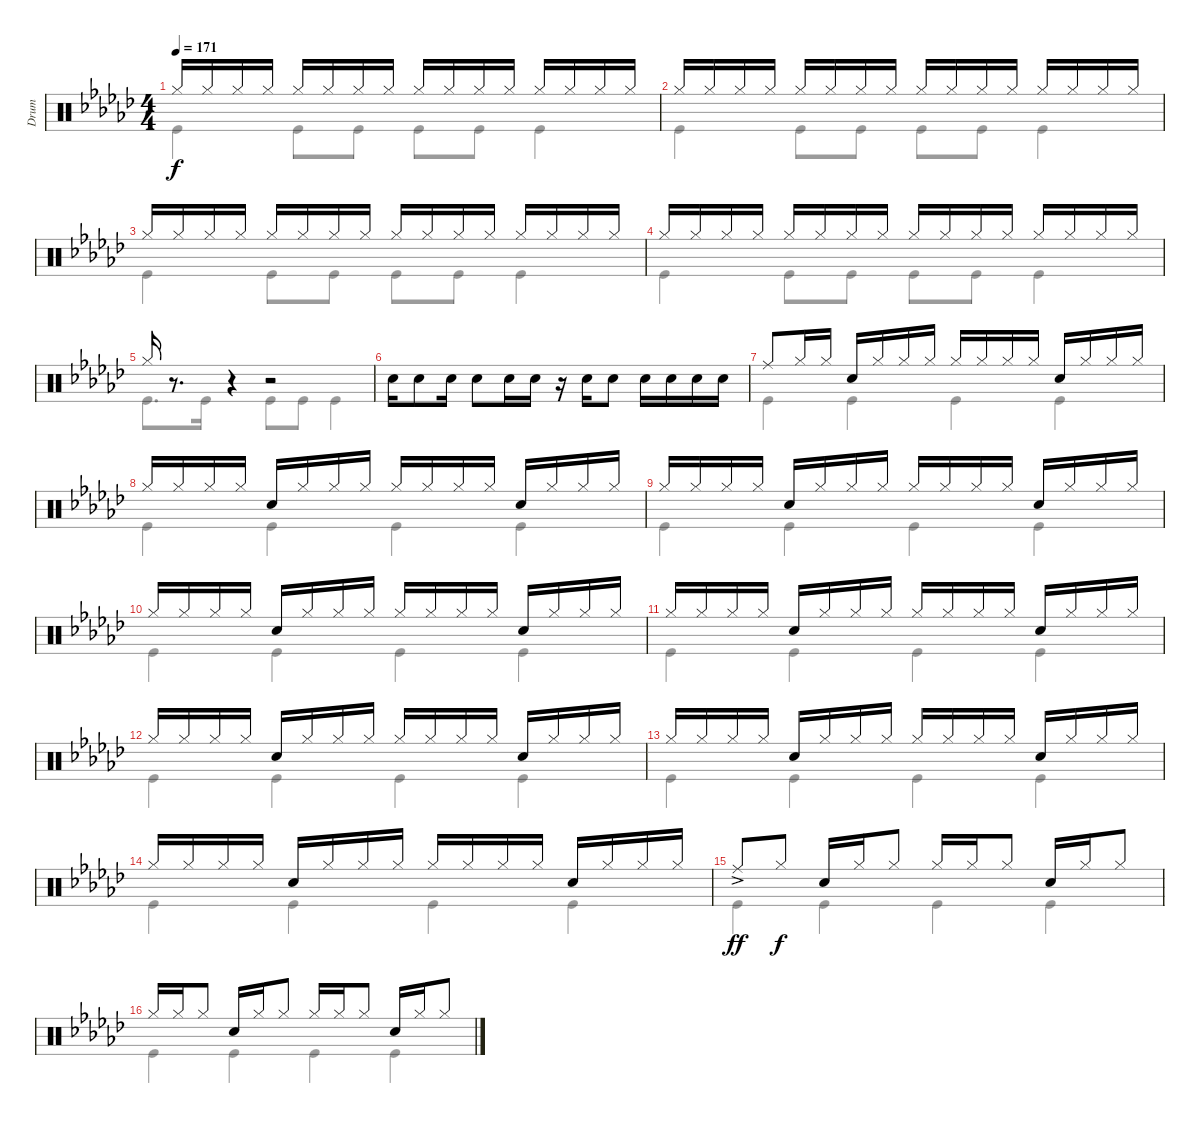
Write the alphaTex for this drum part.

\track ("Drum" "Drum") {instrument percussion}
\staff {score}
\articulation defaults
\voice
\ts (4 4)
\tempo 171
\clef neutral
\ks gb "Hi-Hat (closed)".16{dy f} "Hi-Hat (closed)".16 "Hi-Hat (closed)".16 "Hi-Hat (closed)".16 "Hi-Hat (closed)".16 "Hi-Hat (closed)".16 "Hi-Hat (closed)".16 "Hi-Hat (closed)".16 "Hi-Hat (closed)".16 "Hi-Hat (closed)".16 "Hi-Hat (closed)".16 "Hi-Hat (closed)".16 "Hi-Hat (closed)".16 "Hi-Hat (closed)".16 "Hi-Hat (closed)".16 "Hi-Hat (closed)".16
|
"Hi-Hat (closed)".16 "Hi-Hat (closed)".16 "Hi-Hat (closed)".16 "Hi-Hat (closed)".16 "Hi-Hat (closed)".16 "Hi-Hat (closed)".16 "Hi-Hat (closed)".16 "Hi-Hat (closed)".16 "Hi-Hat (closed)".16 "Hi-Hat (closed)".16 "Hi-Hat (closed)".16 "Hi-Hat (closed)".16 "Hi-Hat (closed)".16 "Hi-Hat (closed)".16 "Hi-Hat (closed)".16 "Hi-Hat (closed)".16 |
"Hi-Hat (closed)".16 "Hi-Hat (closed)".16 "Hi-Hat (closed)".16 "Hi-Hat (closed)".16 "Hi-Hat (closed)".16 "Hi-Hat (closed)".16 "Hi-Hat (closed)".16 "Hi-Hat (closed)".16 "Hi-Hat (closed)".16 "Hi-Hat (closed)".16 "Hi-Hat (closed)".16 "Hi-Hat (closed)".16 "Hi-Hat (closed)".16 "Hi-Hat (closed)".16 "Hi-Hat (closed)".16 "Hi-Hat (closed)".16 |
"Hi-Hat (closed)".16 "Hi-Hat (closed)".16 "Hi-Hat (closed)".16 "Hi-Hat (closed)".16 "Hi-Hat (closed)".16 "Hi-Hat (closed)".16 "Hi-Hat (closed)".16 "Hi-Hat (closed)".16 "Hi-Hat (closed)".16 "Hi-Hat (closed)".16 "Hi-Hat (closed)".16 "Hi-Hat (closed)".16 "Hi-Hat (closed)".16 "Hi-Hat (closed)".16 "Hi-Hat (closed)".16 "Hi-Hat (closed)".16 |
"Hi-Hat (closed)".16 r.8{d} r.4 r.2 |
"Snare (hit) 2".16 "Snare (hit) 2".8 "Snare (hit) 2".16 "Snare (hit) 2".8 "Snare (hit) 2".16 "Snare (hit) 2".16 r.16 "Snare (hit) 2".16 "Snare (hit) 2".8 "Snare (hit) 2".16 "Snare (hit) 2".16 "Snare (hit) 2".16 "Snare (hit) 2".16 |
"Ride (middle)".8 "Hi-Hat (closed)".16 "Hi-Hat (closed)".16 "Snare (hit) 2".16 "Hi-Hat (closed)".16 "Hi-Hat (closed)".16 "Hi-Hat (closed)".16 "Hi-Hat (closed)".16 "Hi-Hat (closed)".16 "Hi-Hat (closed)".16 "Hi-Hat (closed)".16 "Snare (hit) 2".16 "Hi-Hat (closed)".16 "Hi-Hat (closed)".16 "Hi-Hat (closed)".16 |
"Hi-Hat (closed)".16 "Hi-Hat (closed)".16 "Hi-Hat (closed)".16 "Hi-Hat (closed)".16 "Snare (hit) 2".16 "Hi-Hat (closed)".16 "Hi-Hat (closed)".16 "Hi-Hat (closed)".16 "Hi-Hat (closed)".16 "Hi-Hat (closed)".16 "Hi-Hat (closed)".16 "Hi-Hat (closed)".16 "Snare (hit) 2".16 "Hi-Hat (closed)".16 "Hi-Hat (closed)".16 "Hi-Hat (closed)".16 |
"Hi-Hat (closed)".16 "Hi-Hat (closed)".16 "Hi-Hat (closed)".16 "Hi-Hat (closed)".16 "Snare (hit) 2".16 "Hi-Hat (closed)".16 "Hi-Hat (closed)".16 "Hi-Hat (closed)".16 "Hi-Hat (closed)".16 "Hi-Hat (closed)".16 "Hi-Hat (closed)".16 "Hi-Hat (closed)".16 "Snare (hit) 2".16 "Hi-Hat (closed)".16 "Hi-Hat (closed)".16 "Hi-Hat (closed)".16 |
"Hi-Hat (closed)".16 "Hi-Hat (closed)".16 "Hi-Hat (closed)".16 "Hi-Hat (closed)".16 "Snare (hit) 2".16 "Hi-Hat (closed)".16 "Hi-Hat (closed)".16 "Hi-Hat (closed)".16 "Hi-Hat (closed)".16 "Hi-Hat (closed)".16 "Hi-Hat (closed)".16 "Hi-Hat (closed)".16 "Snare (hit) 2".16 "Hi-Hat (closed)".16 "Hi-Hat (closed)".16 "Hi-Hat (closed)".16 |
"Hi-Hat (closed)".16 "Hi-Hat (closed)".16 "Hi-Hat (closed)".16 "Hi-Hat (closed)".16 "Snare (hit) 2".16 "Hi-Hat (closed)".16 "Hi-Hat (closed)".16 "Hi-Hat (closed)".16 "Hi-Hat (closed)".16 "Hi-Hat (closed)".16 "Hi-Hat (closed)".16 "Hi-Hat (closed)".16 "Snare (hit) 2".16 "Hi-Hat (closed)".16 "Hi-Hat (closed)".16 "Hi-Hat (closed)".16 |
"Hi-Hat (closed)".16 "Hi-Hat (closed)".16 "Hi-Hat (closed)".16 "Hi-Hat (closed)".16 "Snare (hit) 2".16 "Hi-Hat (closed)".16 "Hi-Hat (closed)".16 "Hi-Hat (closed)".16 "Hi-Hat (closed)".16 "Hi-Hat (closed)".16 "Hi-Hat (closed)".16 "Hi-Hat (closed)".16 "Snare (hit) 2".16 "Hi-Hat (closed)".16 "Hi-Hat (closed)".16 "Hi-Hat (closed)".16 |
"Hi-Hat (closed)".16 "Hi-Hat (closed)".16 "Hi-Hat (closed)".16 "Hi-Hat (closed)".16 "Snare (hit) 2".16 "Hi-Hat (closed)".16 "Hi-Hat (closed)".16 "Hi-Hat (closed)".16 "Hi-Hat (closed)".16 "Hi-Hat (closed)".16 "Hi-Hat (closed)".16 "Hi-Hat (closed)".16 "Snare (hit) 2".16 "Hi-Hat (closed)".16 "Hi-Hat (closed)".16 "Hi-Hat (closed)".16 |
"Hi-Hat (closed)".16 "Hi-Hat (closed)".16 "Hi-Hat (closed)".16 "Hi-Hat (closed)".16 "Snare (hit) 2".16 "Hi-Hat (closed)".16 "Hi-Hat (closed)".16 "Hi-Hat (closed)".16 "Hi-Hat (closed)".16 "Hi-Hat (closed)".16 "Hi-Hat (closed)".16 "Hi-Hat (closed)".16 "Snare (hit) 2".16 "Hi-Hat (closed)".16 "Hi-Hat (closed)".16 "Hi-Hat (closed)".16 |
"Ride (middle)"{ac}.8{dy ff} "Hi-Hat (closed)".8{dy f} "Snare (hit) 2".16 "Hi-Hat (closed)".16 "Hi-Hat (closed)".8 "Hi-Hat (closed)".16 "Hi-Hat (closed)".16 "Hi-Hat (closed)".8 "Snare (hit) 2".16 "Hi-Hat (closed)".16 "Hi-Hat (closed)".8 |
"Hi-Hat (closed)".16 "Hi-Hat (closed)".16 "Hi-Hat (closed)".8 "Snare (hit) 2".16 "Hi-Hat (closed)".16 "Hi-Hat (closed)".8 "Hi-Hat (closed)".16 "Hi-Hat (closed)".16 "Hi-Hat (closed)".8 "Snare (hit) 2".16 "Hi-Hat (closed)".16 "Hi-Hat (closed)".8
\voice
\clef neutral
\ottava regular
\simile none
\ks gb "Kick (hit)".4{dy f} "Kick (hit)".8 "Kick (hit)".8 "Kick (hit)".8 "Kick (hit)".8 "Kick (hit)".4
|
"Kick (hit)".4 "Kick (hit)".8 "Kick (hit)".8 "Kick (hit)".8 "Kick (hit)".8 "Kick (hit)".4 |
"Kick (hit)".4 "Kick (hit)".8 "Kick (hit)".8 "Kick (hit)".8 "Kick (hit)".8 "Kick (hit)".4 |
"Kick (hit)".4 "Kick (hit)".8 "Kick (hit)".8 "Kick (hit)".8 "Kick (hit)".8 "Kick (hit)".4 |
"Kick (hit)".8{d} "Kick (hit)".16 r.4 "Kick (hit)".8 "Kick (hit)".8 "Kick (hit)".4 |
|
"Kick (hit)".4 "Kick (hit)".4 "Kick (hit)".4 "Kick (hit)".4 |
"Kick (hit)".4 "Kick (hit)".4 "Kick (hit)".4 "Kick (hit)".4 |
"Kick (hit)".4 "Kick (hit)".4 "Kick (hit)".4 "Kick (hit)".4 |
"Kick (hit)".4 "Kick (hit)".4 "Kick (hit)".4 "Kick (hit)".4 |
"Kick (hit)".4 "Kick (hit)".4 "Kick (hit)".4 "Kick (hit)".4 |
"Kick (hit)".4 "Kick (hit)".4 "Kick (hit)".4 "Kick (hit)".4 |
"Kick (hit)".4 "Kick (hit)".4 "Kick (hit)".4 "Kick (hit)".4 |
"Kick (hit)".4 "Kick (hit)".4 "Kick (hit)".4 "Kick (hit)".4 |
"Kick (hit)".4 "Kick (hit)".4 "Kick (hit)".4 "Kick (hit)".4 |
"Kick (hit)".4 "Kick (hit)".4 "Kick (hit)".4 "Kick (hit)".4
